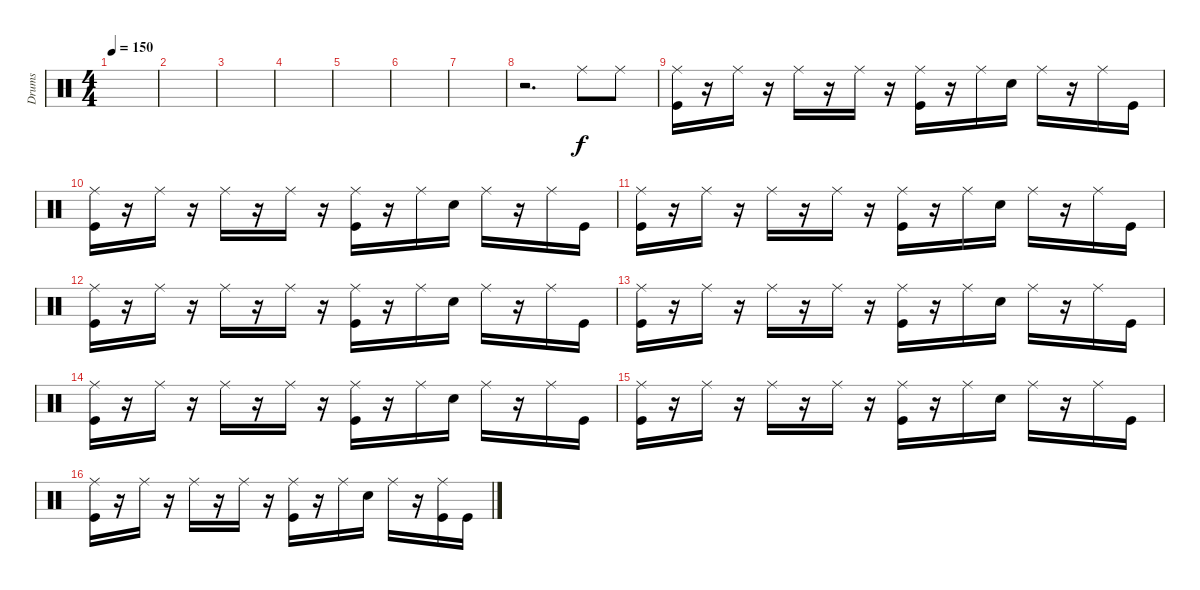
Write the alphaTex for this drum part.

\track ("Drums" "Drums") {instrument percussion}
\staff {score}
\articulation defaults
\ts (4 4)
\tempo 150
\clef neutral
\ks c
|
|
|
|
|
|
|
r.2{d} "Ride (middle)".8 "Ride (middle)".8 |
("Ride (middle)" "Kick (hit)").16 r.16 "Ride (middle)".16 r.16 "Ride (middle)".16 r.16 "Ride (middle)".16 r.16 ("Ride (middle)" "Kick (hit)").16 r.16 "Ride (middle)".16 "Snare (hit) 2".16 "Ride (middle)".16 r.16 "Ride (middle)".16 "Kick (hit)".16 |
("Ride (middle)" "Kick (hit)").16 r.16 "Ride (middle)".16 r.16 "Ride (middle)".16 r.16 "Ride (middle)".16 r.16 ("Ride (middle)" "Kick (hit)").16 r.16 "Ride (middle)".16 "Snare (hit) 2".16 "Ride (middle)".16 r.16 "Ride (middle)".16 "Kick (hit)".16 |
("Ride (middle)" "Kick (hit)").16 r.16 "Ride (middle)".16 r.16 "Ride (middle)".16 r.16 "Ride (middle)".16 r.16 ("Ride (middle)" "Kick (hit)").16 r.16 "Ride (middle)".16 "Snare (hit) 2".16 "Ride (middle)".16 r.16 "Ride (middle)".16 "Kick (hit)".16 |
("Ride (middle)" "Kick (hit)").16 r.16 "Ride (middle)".16 r.16 "Ride (middle)".16 r.16 "Ride (middle)".16 r.16 ("Ride (middle)" "Kick (hit)").16 r.16 "Ride (middle)".16 "Snare (hit) 2".16 "Ride (middle)".16 r.16 "Ride (middle)".16 "Kick (hit)".16 |
("Ride (middle)" "Kick (hit)").16 r.16 "Ride (middle)".16 r.16 "Ride (middle)".16 r.16 "Ride (middle)".16 r.16 ("Ride (middle)" "Kick (hit)").16 r.16 "Ride (middle)".16 "Snare (hit) 2".16 "Ride (middle)".16 r.16 "Ride (middle)".16 "Kick (hit)".16 |
("Ride (middle)" "Kick (hit)").16 r.16 "Ride (middle)".16 r.16 "Ride (middle)".16 r.16 "Ride (middle)".16 r.16 ("Ride (middle)" "Kick (hit)").16 r.16 "Ride (middle)".16 "Snare (hit) 2".16 "Ride (middle)".16 r.16 "Ride (middle)".16 "Kick (hit)".16 |
("Ride (middle)" "Kick (hit)").16 r.16 "Ride (middle)".16 r.16 "Ride (middle)".16 r.16 "Ride (middle)".16 r.16 ("Ride (middle)" "Kick (hit)").16 r.16 "Ride (middle)".16 "Snare (hit) 2".16 "Ride (middle)".16 r.16 "Ride (middle)".16 "Kick (hit)".16 |
("Ride (middle)" "Kick (hit)").16 r.16 "Ride (middle)".16 r.16 "Ride (middle)".16 r.16 "Ride (middle)".16 r.16 ("Ride (middle)" "Kick (hit)").16 r.16 "Ride (middle)".16 "Snare (hit) 2".16 "Ride (middle)".16 r.16 ("Ride (middle)" "Kick (hit)").16 "Kick (hit)".16
